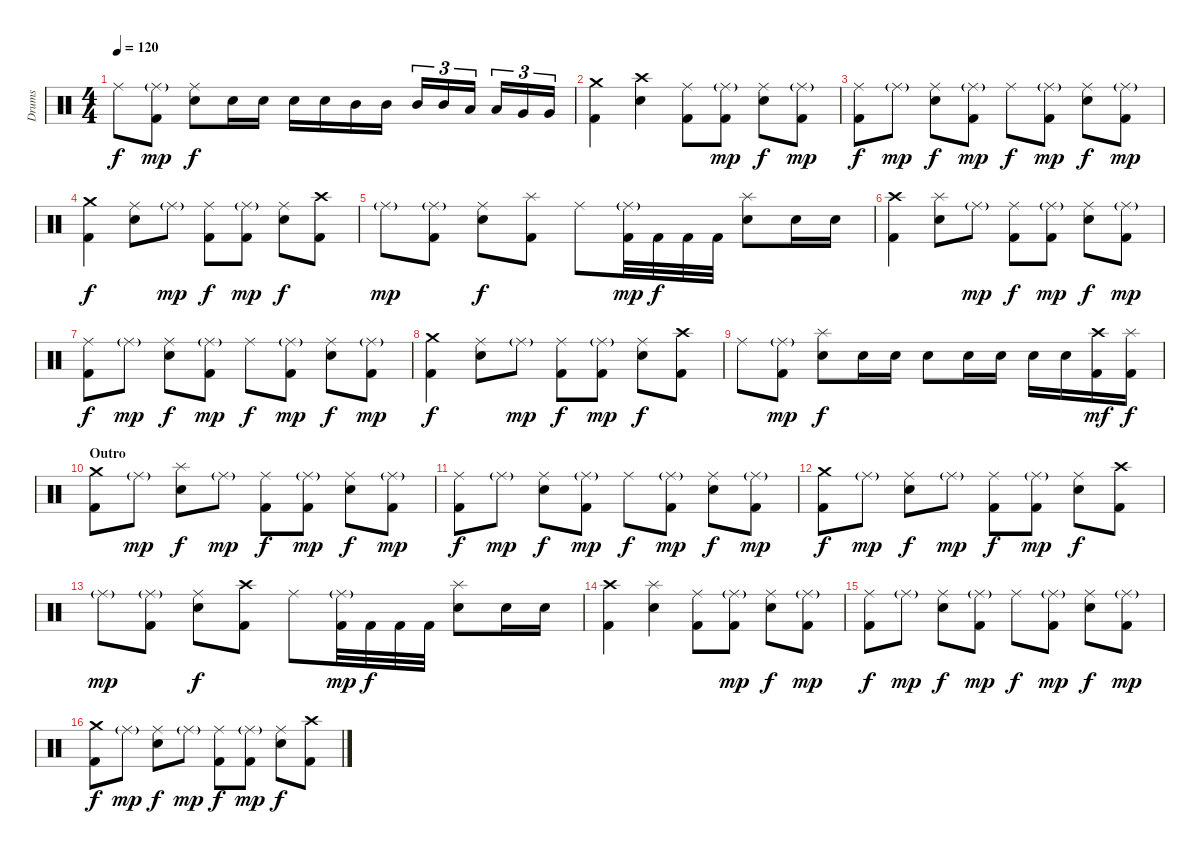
\track ("Drums" "Drums") {instrument percussion}
\staff {score}
\articulation defaults
\ts (4 4)
\tempo 120
\clef neutral
\ks c "Ride (middle)".8{dy f}
("Ride (middle)"{g} "Kick (hit) 2").8{dy mp} ("Ride (middle)" "Snare (hit) 2").8{dy f} "Snare (hit) 2".16 "Snare (hit) 2".16 "Snare (hit) 2".16 "Snare (hit) 2".16 "Mid Tom (hit)".16 "Mid Tom (hit)".16 "Mid Tom (hit)".16{tu (3 2)} "Mid Tom (hit)".16{tu (3 2)} "Low Tom (hit)".16{tu (3 2)} "Low Tom (hit)".16{tu (3 2)} "Very Low Tom (hit)".16{tu (3 2)} "Very Low Tom (hit)".16{tu (3 2)} |
("Crash medium (hit)" "Kick (hit) 2").4 ("Crash high (hit)" "Snare (hit) 2").4 ("Ride (middle)" "Kick (hit) 2").8 ("Ride (middle)"{g} "Kick (hit) 2").8{dy mp} ("Ride (middle)" "Snare (hit) 2").8{dy f} ("Ride (middle)"{g} "Kick (hit) 2").8{dy mp} |
("Ride (middle)" "Kick (hit) 2").8{dy f} "Ride (middle)"{g}.8{dy mp} ("Ride (middle)" "Snare (hit) 2").8{dy f} ("Ride (middle)"{g} "Kick (hit) 2").8{dy mp} "Ride (middle)".8{dy f} ("Ride (middle)"{g} "Kick (hit) 2").8{dy mp} ("Ride (middle)" "Snare (hit) 2").8{dy f} ("Ride (middle)"{g} "Kick (hit) 2").8{dy mp} |
("Crash medium (hit)" "Kick (hit) 2").4{dy f} ("Ride (middle)" "Snare (hit) 2").8 "Ride (middle)"{g}.8{dy mp} ("Ride (middle)" "Kick (hit) 2").8{dy f} ("Ride (middle)"{g} "Kick (hit) 2").8{dy mp} ("Ride (middle)" "Snare (hit) 2").8{dy f} ("Crash high (hit)" "Kick (hit) 2").8 |
"Ride (middle)"{g}.8{dy mp} ("Ride (middle)"{g} "Kick (hit) 2").8 ("Ride (middle)" "Snare (hit) 2").8{dy f} ("Splash (hit)" "Kick (hit) 2").8 "Ride (middle)".8 ("Ride (middle)"{g} "Kick (hit) 2").32{dy mp} "Kick (hit) 2".32{dy f} "Kick (hit) 2".32 "Kick (hit) 2".32 ("Splash (hit)" "Snare (hit) 2").8 "Snare (hit) 2".16 "Snare (hit) 2".16 |
("Crash high (hit)" "Kick (hit) 2").4 ("Splash (hit)" "Snare (hit) 2").8 "Ride (middle)"{g}.8{dy mp} ("Ride (middle)" "Kick (hit) 2").8{dy f} ("Ride (middle)"{g} "Kick (hit) 2").8{dy mp} ("Ride (middle)" "Snare (hit) 2").8{dy f} ("Ride (middle)"{g} "Kick (hit) 2").8{dy mp} |
("Ride (middle)" "Kick (hit) 2").8{dy f} "Ride (middle)"{g}.8{dy mp} ("Ride (middle)" "Snare (hit) 2").8{dy f} ("Ride (middle)"{g} "Kick (hit) 2").8{dy mp} "Ride (middle)".8{dy f} ("Ride (middle)"{g} "Kick (hit) 2").8{dy mp} ("Ride (middle)" "Snare (hit) 2").8{dy f} ("Ride (middle)"{g} "Kick (hit) 2").8{dy mp} |
("Crash medium (hit)" "Kick (hit) 2").4{dy f} ("Ride (middle)" "Snare (hit) 2").8 "Ride (middle)"{g}.8{dy mp} ("Ride (middle)" "Kick (hit) 2").8{dy f} ("Ride (middle)"{g} "Kick (hit) 2").8{dy mp} ("Ride (middle)" "Snare (hit) 2").8{dy f} ("Crash high (hit)" "Kick (hit) 2").8 |
"Ride (middle)".8 ("Ride (middle)"{g} "Kick (hit) 2").8{dy mp} ("Splash (hit)" "Snare (hit) 2").8{dy f} "Snare (hit) 2".16 "Snare (hit) 2".16 "Snare (hit) 2".8 "Snare (hit) 2".16 "Snare (hit) 2".16 "Snare (hit) 2".16 "Snare (hit) 2".16 ("Crash high (hit)" "Kick (hit) 2").16{dy mf} ("Splash (hit)" "Kick (hit) 2").16{dy f} |
\section ("" "Outro")
("Crash medium (hit)" "Kick (hit) 2").8{volume 13} "Ride (middle)"{g}.8{dy mp} ("Splash (hit)" "Snare (hit) 2").8{dy f} "Ride (middle)"{g}.8{dy mp} ("Ride (middle)" "Kick (hit) 2").8{dy f} ("Ride (middle)"{g} "Kick (hit) 2").8{dy mp} ("Ride (middle)" "Snare (hit) 2").8{dy f} ("Ride (middle)"{g} "Kick (hit) 2").8{dy mp} |
("Ride (middle)" "Kick (hit) 2").8{dy f volume 12} "Ride (middle)"{g}.8{dy mp} ("Ride (middle)" "Snare (hit) 2").8{dy f} ("Ride (middle)"{g} "Kick (hit) 2").8{dy mp} "Ride (middle)".8{dy f} ("Ride (middle)"{g} "Kick (hit) 2").8{dy mp} ("Ride (middle)" "Snare (hit) 2").8{dy f} ("Ride (middle)"{g} "Kick (hit) 2").8{dy mp} |
("Crash medium (hit)" "Kick (hit) 2").8{dy f volume 11} "Ride (middle)"{g}.8{dy mp} ("Ride (middle)" "Snare (hit) 2").8{dy f} "Ride (middle)"{g}.8{dy mp} ("Ride (middle)" "Kick (hit) 2").8{dy f} ("Ride (middle)"{g} "Kick (hit) 2").8{dy mp} ("Ride (middle)" "Snare (hit) 2").8{dy f} ("Crash high (hit)" "Kick (hit) 2").8 |
"Ride (middle)"{g}.8{dy mp volume 10} ("Ride (middle)"{g} "Kick (hit) 2").8 ("Ride (middle)" "Snare (hit) 2").8{dy f} ("Crash high (hit)" "Kick (hit) 2").8 "Ride (middle)".8 ("Ride (middle)"{g} "Kick (hit) 2").32{dy mp} "Kick (hit) 2".32{dy f} "Kick (hit) 2".32 "Kick (hit) 2".32 ("Splash (hit)" "Snare (hit) 2").8 "Snare (hit) 2".16 "Snare (hit) 2".16 |
("Crash high (hit)" "Kick (hit) 2").4{volume 9} ("Splash (hit)" "Snare (hit) 2").4 ("Ride (middle)" "Kick (hit) 2").8 ("Ride (middle)"{g} "Kick (hit) 2").8{dy mp} ("Ride (middle)" "Snare (hit) 2").8{dy f} ("Ride (middle)"{g} "Kick (hit) 2").8{dy mp} |
("Ride (middle)" "Kick (hit) 2").8{dy f volume 8} "Ride (middle)"{g}.8{dy mp} ("Ride (middle)" "Snare (hit) 2").8{dy f} ("Ride (middle)"{g} "Kick (hit) 2").8{dy mp} "Ride (middle)".8{dy f} ("Ride (middle)"{g} "Kick (hit) 2").8{dy mp} ("Ride (middle)" "Snare (hit) 2").8{dy f} ("Ride (middle)"{g} "Kick (hit) 2").8{dy mp} |
("Crash medium (hit)" "Kick (hit) 2").8{dy f volume 7} "Ride (middle)"{g}.8{dy mp} ("Ride (middle)" "Snare (hit) 2").8{dy f} "Ride (middle)"{g}.8{dy mp} ("Ride (middle)" "Kick (hit) 2").8{dy f} ("Ride (middle)"{g} "Kick (hit) 2").8{dy mp} ("Ride (middle)" "Snare (hit) 2").8{dy f} ("Crash high (hit)" "Kick (hit) 2").8
